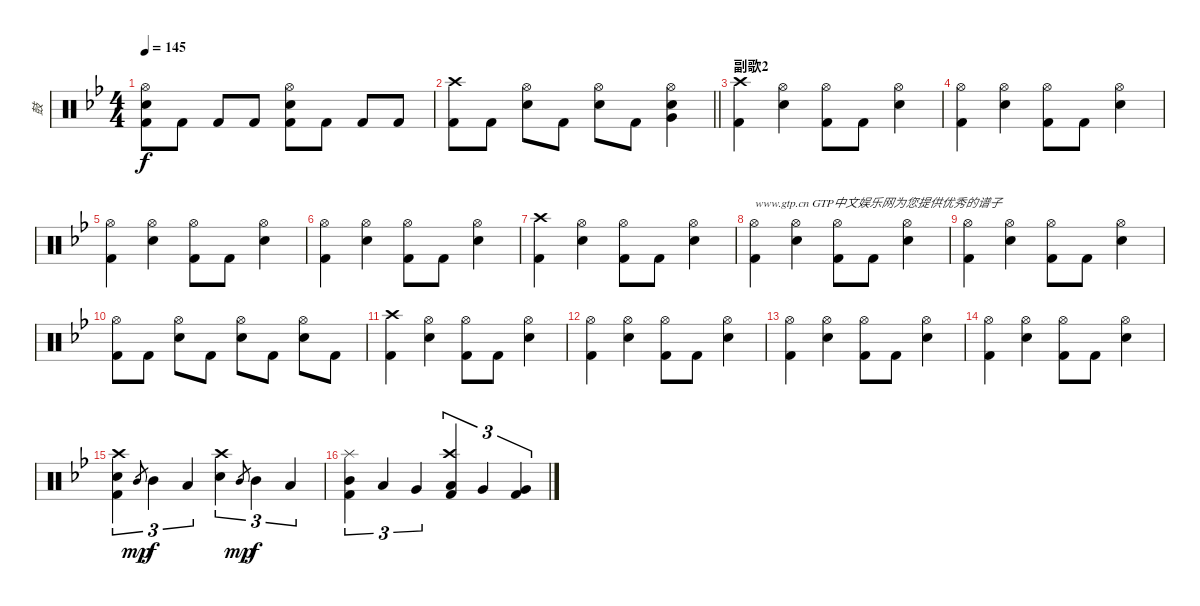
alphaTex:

\track ("鼓" "鼓") {instrument percussion}
\staff {score}
\articulation defaults
\ts (4 4)
\tempo 145
\clef neutral
\ks bb
("Hi-Hat (open)" "Snare (hit) 2" "Kick (hit) 2").8{dy f} "Kick (hit) 2".8 "Kick (hit) 2".8 "Kick (hit) 2".8 ("Hi-Hat (open)" "Snare (hit) 2" "Kick (hit) 2").8 "Kick (hit) 2".8 "Kick (hit) 2".8 "Kick (hit) 2".8 |
\barLineRight lightlight
("Crash high (hit)" "Kick (hit) 2").8 "Kick (hit) 2".8 ("Hi-Hat (open)" "Snare (hit) 2").8 "Kick (hit) 2".8 ("Hi-Hat (open)" "Snare (hit) 2").8 "Kick (hit) 2".8 ("Hi-Hat (open)" "Snare (hit) 2" "Very Low Tom (hit)").4 |
\section ("" "副歌2")
("Crash high (hit)" "Kick (hit) 2").4 ("Hi-Hat (open)" "Snare (hit) 2").4 ("Hi-Hat (open)" "Kick (hit) 2").8 "Kick (hit) 2".8 ("Hi-Hat (open)" "Snare (hit) 2").4 |
("Hi-Hat (open)" "Kick (hit) 2").4 ("Hi-Hat (open)" "Snare (hit) 2").4 ("Hi-Hat (open)" "Kick (hit) 2").8 "Kick (hit) 2".8 ("Hi-Hat (open)" "Snare (hit) 2").4 |
("Hi-Hat (open)" "Kick (hit) 2").4 ("Hi-Hat (open)" "Snare (hit) 2").4 ("Hi-Hat (open)" "Kick (hit) 2").8 "Kick (hit) 2".8 ("Hi-Hat (open)" "Snare (hit) 2").4 |
("Hi-Hat (open)" "Kick (hit) 2").4 ("Hi-Hat (open)" "Snare (hit) 2").4 ("Hi-Hat (open)" "Kick (hit) 2").8 "Kick (hit) 2".8 ("Hi-Hat (open)" "Snare (hit) 2").4 |
("Crash high (hit)" "Kick (hit) 2").4 ("Hi-Hat (open)" "Snare (hit) 2").4 ("Hi-Hat (open)" "Kick (hit) 2").8 "Kick (hit) 2".8 ("Hi-Hat (open)" "Snare (hit) 2").4 |
("Hi-Hat (open)" "Kick (hit) 2").4{txt "www.gtp.cn GTP中文娱乐网为您提供优秀的谱子"} ("Hi-Hat (open)" "Snare (hit) 2").4 ("Hi-Hat (open)" "Kick (hit) 2").8 "Kick (hit) 2".8 ("Hi-Hat (open)" "Snare (hit) 2").4 |
("Hi-Hat (open)" "Kick (hit) 2").4 ("Hi-Hat (open)" "Snare (hit) 2").4 ("Hi-Hat (open)" "Kick (hit) 2").8 "Kick (hit) 2".8 ("Hi-Hat (open)" "Snare (hit) 2").4 |
("Hi-Hat (open)" "Kick (hit) 2").8 "Kick (hit) 2".8 ("Hi-Hat (open)" "Snare (hit) 2").8 "Kick (hit) 2".8 ("Hi-Hat (open)" "Snare (hit) 2").8 "Kick (hit) 2".8 ("Hi-Hat (open)" "Snare (hit) 2").8 "Kick (hit) 2".8 |
("Crash high (hit)" "Kick (hit) 2").4 ("Hi-Hat (open)" "Snare (hit) 2").4 ("Hi-Hat (open)" "Kick (hit) 2").8 "Kick (hit) 2".8 ("Hi-Hat (open)" "Snare (hit) 2").4 |
("Hi-Hat (open)" "Kick (hit) 2").4 ("Hi-Hat (open)" "Snare (hit) 2").4 ("Hi-Hat (open)" "Kick (hit) 2").8 "Kick (hit) 2".8 ("Hi-Hat (open)" "Snare (hit) 2").4 |
("Hi-Hat (open)" "Kick (hit) 2").4 ("Hi-Hat (open)" "Snare (hit) 2").4 ("Hi-Hat (open)" "Kick (hit) 2").8 "Kick (hit) 2".8 ("Hi-Hat (open)" "Snare (hit) 2").4 |
("Hi-Hat (open)" "Kick (hit) 2").4 ("Hi-Hat (open)" "Snare (hit) 2").4 ("Hi-Hat (open)" "Kick (hit) 2").8 "Kick (hit) 2".8 ("Hi-Hat (open)" "Snare (hit) 2").4 |
("Crash high (hit)" "Snare (hit) 2" "Kick (hit) 2").4{tu (3 2)} "Mid Tom (hit)".8{gr dy mp} "Mid Tom (hit)".4{tu (3 2) dy f} "Low Tom (hit)".4{tu (3 2)} ("Crash high (hit)" "Snare (hit) 2").4{tu (3 2)} "Mid Tom (hit)".8{gr dy mp} "Mid Tom (hit)".4{tu (3 2) dy f} "Low Tom (hit)".4{tu (3 2)} |
("Splash (hit)" "Mid Tom (hit)" "Kick (hit) 2").4{tu (3 2)} "Low Tom (hit)".4{tu (3 2)} "Very Low Tom (hit)".4{tu (3 2)} ("Crash high (hit)" "Low Tom (hit)" "Kick (hit) 2").4{tu (3 2)} "Very Low Tom (hit)".4{tu (3 2)} ("Very Low Tom (hit)" "Kick (hit) 2").4{tu (3 2)}
